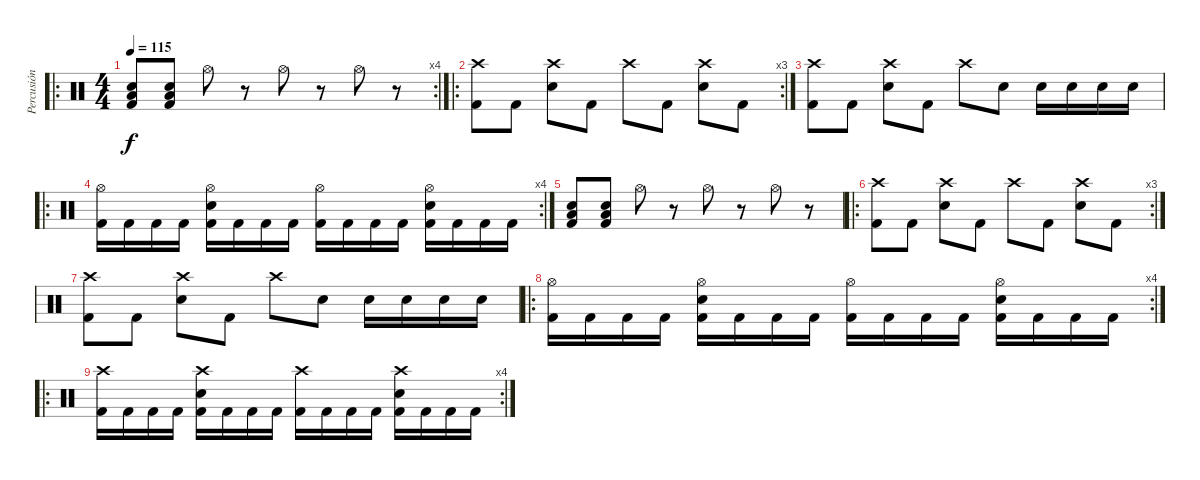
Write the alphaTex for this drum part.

\track ("Percusión" "Percusión") {instrument percussion}
\staff {score}
\articulation defaults
\ro
\rc 4
\ts (4 4)
\tempo 115
\clef neutral
\ks c
("Electric Snare (hit)" "Low Tom (hit)" "Kick (hit) 2").8{dy f} ("Electric Snare (hit)" "Low Tom (hit)" "Kick (hit) 2").8 "Hi-Hat (open)".8 r.8 "Hi-Hat (open)".8 r.8 "Hi-Hat (open)".8 r.8 |
\ro
\rc 3
("Crash high (hit)" "Kick (hit) 2").8 "Kick (hit) 2".8 ("Crash high (hit)" "Electric Snare (hit)").8 "Kick (hit) 2".8 "Crash high (hit)".8 "Kick (hit) 2".8 ("Crash high (hit)" "Electric Snare (hit)").8 "Kick (hit) 2".8 |
("Crash high (hit)" "Kick (hit) 2").8 "Kick (hit) 2".8 ("Crash high (hit)" "Electric Snare (hit)").8 "Kick (hit) 2".8 "Crash high (hit)".8 "Electric Snare (hit)".8 "Electric Snare (hit)".16 "Electric Snare (hit)".16 "Electric Snare (hit)".16 "Electric Snare (hit)".16 |
\ro
\rc 4
("Hi-Hat (open)" "Kick (hit) 2").16 "Kick (hit) 2".16 "Kick (hit) 2".16 "Kick (hit) 2".16 ("Hi-Hat (open)" "Electric Snare (hit)" "Kick (hit) 2").16 "Kick (hit) 2".16 "Kick (hit) 2".16 "Kick (hit) 2".16 ("Hi-Hat (open)" "Kick (hit) 2").16 "Kick (hit) 2".16 "Kick (hit) 2".16 "Kick (hit) 2".16 ("Hi-Hat (open)" "Electric Snare (hit)" "Kick (hit) 2").16 "Kick (hit) 2".16 "Kick (hit) 2".16 "Kick (hit) 2".16 |
("Electric Snare (hit)" "Low Tom (hit)" "Kick (hit) 2").8 ("Electric Snare (hit)" "Low Tom (hit)" "Kick (hit) 2").8 "Hi-Hat (open)".8 r.8 "Hi-Hat (open)".8 r.8 "Hi-Hat (open)".8 r.8 |
\ro
\rc 3
("Crash high (hit)" "Kick (hit) 2").8 "Kick (hit) 2".8 ("Crash high (hit)" "Electric Snare (hit)").8 "Kick (hit) 2".8 "Crash high (hit)".8 "Kick (hit) 2".8 ("Crash high (hit)" "Electric Snare (hit)").8 "Kick (hit) 2".8 |
("Crash high (hit)" "Kick (hit) 2").8 "Kick (hit) 2".8 ("Crash high (hit)" "Electric Snare (hit)").8 "Kick (hit) 2".8 "Crash high (hit)".8 "Electric Snare (hit)".8 "Electric Snare (hit)".16 "Electric Snare (hit)".16 "Electric Snare (hit)".16 "Electric Snare (hit)".16 |
\ro
\rc 4
("Hi-Hat (open)" "Kick (hit) 2").16 "Kick (hit) 2".16 "Kick (hit) 2".16 "Kick (hit) 2".16 ("Hi-Hat (open)" "Electric Snare (hit)" "Kick (hit) 2").16 "Kick (hit) 2".16 "Kick (hit) 2".16 "Kick (hit) 2".16 ("Hi-Hat (open)" "Kick (hit) 2").16 "Kick (hit) 2".16 "Kick (hit) 2".16 "Kick (hit) 2".16 ("Hi-Hat (open)" "Electric Snare (hit)" "Kick (hit) 2").16 "Kick (hit) 2".16 "Kick (hit) 2".16 "Kick (hit) 2".16 |
\ro
\rc 4
("Crash high (hit)" "Kick (hit) 2").16 "Kick (hit) 2".16 "Kick (hit) 2".16 "Kick (hit) 2".16 ("Crash high (hit)" "Electric Snare (hit)" "Kick (hit) 2").16 "Kick (hit) 2".16 "Kick (hit) 2".16 "Kick (hit) 2".16 ("Crash high (hit)" "Kick (hit) 2").16 "Kick (hit) 2".16 "Kick (hit) 2".16 "Kick (hit) 2".16 ("Crash high (hit)" "Electric Snare (hit)" "Kick (hit) 2").16 "Kick (hit) 2".16 "Kick (hit) 2".16 "Kick (hit) 2".16
